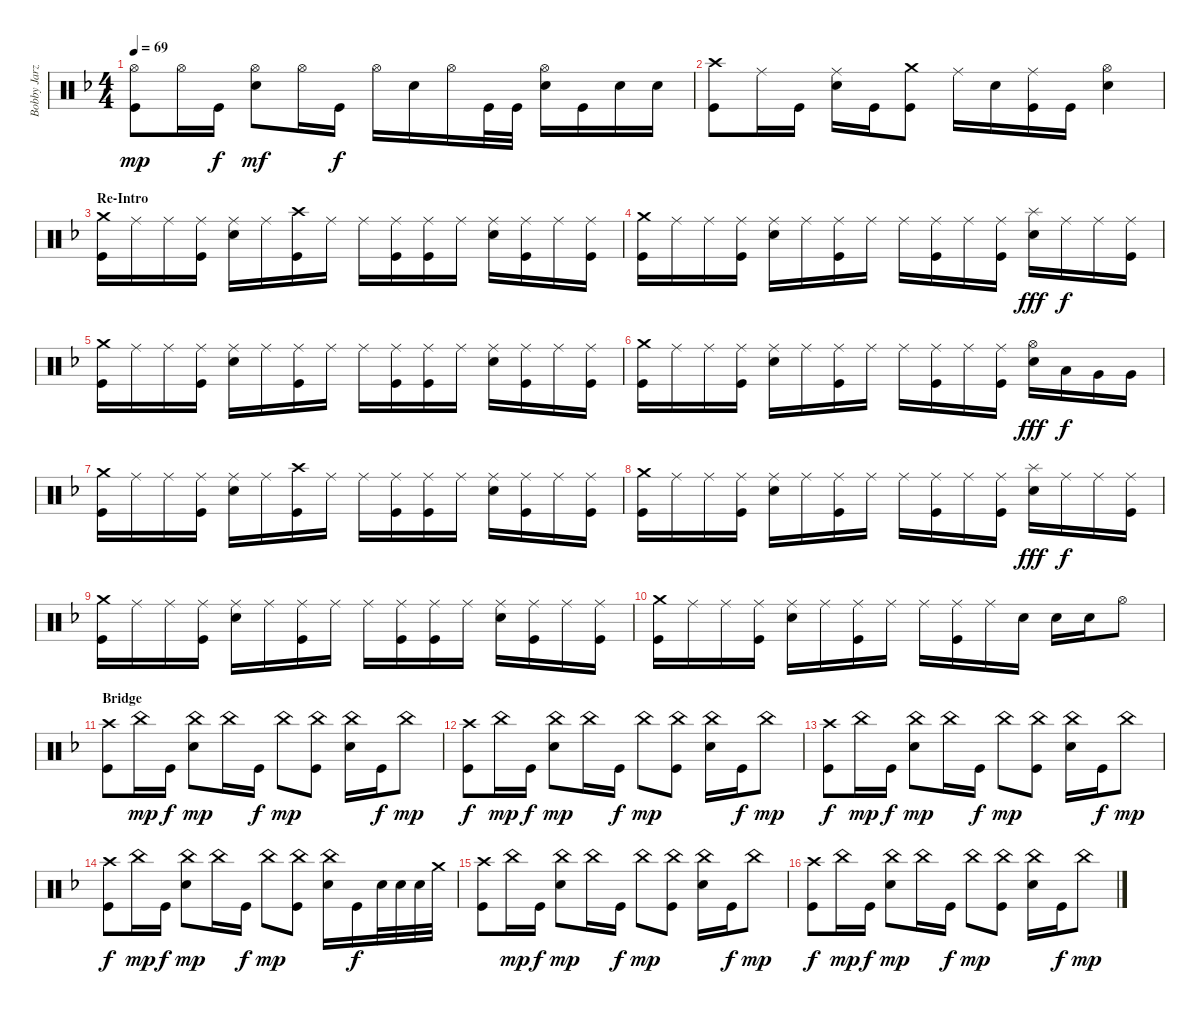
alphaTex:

\track ("Bobby Jarzombek" "Bobby Jarz") {instrument percussion}
\staff {score}
\articulation defaults
\ts (4 4)
\tempo 69
\clef neutral
\ks dminor
("Hi-Hat (open)" "Kick (hit)").8{dy mp} "Hi-Hat (open)".16 "Kick (hit)".16{dy f} ("Hi-Hat (open)" "Electric Snare (hit)").8{dy mf} "Hi-Hat (open)".16 "Kick (hit)".16{dy f} "Hi-Hat (open)".16 "Electric Snare (hit)".16 "Hi-Hat (open)".16 "Kick (hit)".32 "Kick (hit)".32 ("Hi-Hat (open)" "Electric Snare (hit)").16 "Kick (hit)".16 "Electric Snare (hit)".16 "Electric Snare (hit)".16 |
("Crash high (hit)" "Kick (hit)").8 "Ride (middle)".16 "Kick (hit)".16 ("Ride (middle)" "Electric Snare (hit)").16 "Kick (hit)".16 ("Crash medium (hit)" "Kick (hit)").8 "Ride (middle)".16 "Electric Snare (hit)".16 ("Ride (middle)" "Kick (hit)").16 "Kick (hit)".16 ("Hi-Hat (open)" "Electric Snare (hit)").4 |
\section ("" "Re-Intro")
("Crash medium (hit)" "Kick (hit)").16 "Ride (middle)".16 "Ride (middle)".16 ("Ride (middle)" "Kick (hit)").16 ("Ride (middle)" "Electric Snare (hit)").16 "Ride (middle)".16 ("Crash high (hit)" "Kick (hit)").16 "Ride (middle)".16 "Ride (middle)".16 ("Ride (middle)" "Kick (hit)").16 ("Ride (middle)" "Kick (hit)").16 "Ride (middle)".16 ("Ride (middle)" "Electric Snare (hit)").16 ("Ride (middle)" "Kick (hit)").16 "Ride (middle)".16 ("Ride (middle)" "Kick (hit)").16 |
("Crash medium (hit)" "Kick (hit)").16 "Ride (middle)".16 "Ride (middle)".16 ("Ride (middle)" "Kick (hit)").16 ("Ride (middle)" "Electric Snare (hit)").16 "Ride (middle)".16 ("Ride (middle)" "Kick (hit)").16 "Ride (middle)".16 "Ride (middle)".16 ("Ride (middle)" "Kick (hit)").16 "Ride (middle)".16 ("Ride (middle)" "Kick (hit)").16 ("Splash (hit)" "Electric Snare (hit)").16{dy fff} "Ride (middle)".16{dy f} "Ride (middle)".16 ("Ride (middle)" "Kick (hit)").16 |
("Crash medium (hit)" "Kick (hit)").16 "Ride (middle)".16 "Ride (middle)".16 ("Ride (middle)" "Kick (hit)").16 ("Ride (middle)" "Electric Snare (hit)").16 "Ride (middle)".16 ("Ride (middle)" "Kick (hit)").16 "Ride (middle)".16 "Ride (middle)".16 ("Ride (middle)" "Kick (hit)").16 ("Ride (middle)" "Kick (hit)").16 "Ride (middle)".16 ("Ride (middle)" "Electric Snare (hit)").16 ("Ride (middle)" "Kick (hit)").16 "Ride (middle)".16 ("Ride (middle)" "Kick (hit)").16 |
("Crash medium (hit)" "Kick (hit)").16 "Ride (middle)".16 "Ride (middle)".16 ("Ride (middle)" "Kick (hit)").16 ("Ride (middle)" "Electric Snare (hit)").16 "Ride (middle)".16 ("Ride (middle)" "Kick (hit)").16 "Ride (middle)".16 "Ride (middle)".16 ("Ride (middle)" "Kick (hit)").16 "Ride (middle)".16 ("Ride (middle)" "Kick (hit)").16 ("Hi-Hat (open)" "Electric Snare (hit)").16{dy fff} "Low Tom (hit)".16{dy f} "Very Low Tom (hit)".16 "Very Low Tom (hit)".16 |
("Crash medium (hit)" "Kick (hit)").16 "Ride (middle)".16 "Ride (middle)".16 ("Ride (middle)" "Kick (hit)").16 ("Ride (middle)" "Electric Snare (hit)").16 "Ride (middle)".16 ("Crash high (hit)" "Kick (hit)").16 "Ride (middle)".16 "Ride (middle)".16 ("Ride (middle)" "Kick (hit)").16 ("Ride (middle)" "Kick (hit)").16 "Ride (middle)".16 ("Ride (middle)" "Electric Snare (hit)").16 ("Ride (middle)" "Kick (hit)").16 "Ride (middle)".16 ("Ride (middle)" "Kick (hit)").16 |
("Crash medium (hit)" "Kick (hit)").16 "Ride (middle)".16 "Ride (middle)".16 ("Ride (middle)" "Kick (hit)").16 ("Ride (middle)" "Electric Snare (hit)").16 "Ride (middle)".16 ("Ride (middle)" "Kick (hit)").16 "Ride (middle)".16 "Ride (middle)".16 ("Ride (middle)" "Kick (hit)").16 "Ride (middle)".16 ("Ride (middle)" "Kick (hit)").16 ("Splash (hit)" "Electric Snare (hit)").16{dy fff} "Ride (middle)".16{dy f} "Ride (middle)".16 ("Ride (middle)" "Kick (hit)").16 |
("Crash medium (hit)" "Kick (hit)").16 "Ride (middle)".16 "Ride (middle)".16 ("Ride (middle)" "Kick (hit)").16 ("Ride (middle)" "Electric Snare (hit)").16 "Ride (middle)".16 ("Ride (middle)" "Kick (hit)").16 "Ride (middle)".16 "Ride (middle)".16 ("Ride (middle)" "Kick (hit)").16 ("Ride (middle)" "Kick (hit)").16 "Ride (middle)".16 ("Ride (middle)" "Electric Snare (hit)").16 ("Ride (middle)" "Kick (hit)").16 "Ride (middle)".16 ("Ride (middle)" "Kick (hit)").16 |
("Crash medium (hit)" "Kick (hit)").16 "Ride (middle)".16 "Ride (middle)".16 ("Ride (middle)" "Kick (hit)").16 ("Ride (middle)" "Electric Snare (hit)").16 "Ride (middle)".16 ("Ride (middle)" "Kick (hit)").16 "Ride (middle)".16 "Ride (middle)".16 ("Ride (middle)" "Kick (hit)").16 "Ride (middle)".16 "Electric Snare (hit)".16 "Electric Snare (hit)".16 "Electric Snare (hit)".16 "Hi-Hat (open)".8 |
\section ("" "Bridge")
("Crash high (hit)" "Kick (hit)").8 "China (hit)".16{dy mp} "Kick (hit)".16{dy f} ("China (hit)" "Electric Snare (hit)").8{dy mp} "China (hit)".16 "Kick (hit)".16{dy f} "China (hit)".8{dy mp} ("China (hit)" "Kick (hit)").8 ("China (hit)" "Electric Snare (hit)").16 "Kick (hit)".16{dy f} "China (hit)".8{dy mp} |
("Crash high (hit)" "Kick (hit)").8{dy f} "China (hit)".16{dy mp} "Kick (hit)".16{dy f} ("China (hit)" "Electric Snare (hit)").8{dy mp} "China (hit)".16 "Kick (hit)".16{dy f} "China (hit)".8{dy mp} ("China (hit)" "Kick (hit)").8 ("China (hit)" "Electric Snare (hit)").16 "Kick (hit)".16{dy f} "China (hit)".8{dy mp} |
("Crash high (hit)" "Kick (hit)").8{dy f} "China (hit)".16{dy mp} "Kick (hit)".16{dy f} ("China (hit)" "Electric Snare (hit)").8{dy mp} "China (hit)".16 "Kick (hit)".16{dy f} "China (hit)".8{dy mp} ("China (hit)" "Kick (hit)").8 ("China (hit)" "Electric Snare (hit)").16 "Kick (hit)".16{dy f} "China (hit)".8{dy mp} |
("Crash high (hit)" "Kick (hit)").8{dy f} "China (hit)".16{dy mp} "Kick (hit)".16{dy f} ("China (hit)" "Electric Snare (hit)").8{dy mp} "China (hit)".16 "Kick (hit)".16{dy f} "China (hit)".8{dy mp} ("China (hit)" "Kick (hit)").8 ("China (hit)" "Electric Snare (hit)").16 "Kick (hit)".16{dy f} "Electric Snare (hit)".32 "Electric Snare (hit)".32 "Electric Snare (hit)".32 "Crash medium (hit)".32 |
("Crash high (hit)" "Kick (hit)").8 "China (hit)".16{dy mp} "Kick (hit)".16{dy f} ("China (hit)" "Electric Snare (hit)").8{dy mp} "China (hit)".16 "Kick (hit)".16{dy f} "China (hit)".8{dy mp} ("China (hit)" "Kick (hit)").8 ("China (hit)" "Electric Snare (hit)").16 "Kick (hit)".16{dy f} "China (hit)".8{dy mp} |
("Crash high (hit)" "Kick (hit)").8{dy f} "China (hit)".16{dy mp} "Kick (hit)".16{dy f} ("China (hit)" "Electric Snare (hit)").8{dy mp} "China (hit)".16 "Kick (hit)".16{dy f} "China (hit)".8{dy mp} ("China (hit)" "Kick (hit)").8 ("China (hit)" "Electric Snare (hit)").16 "Kick (hit)".16{dy f} "China (hit)".8{dy mp}
